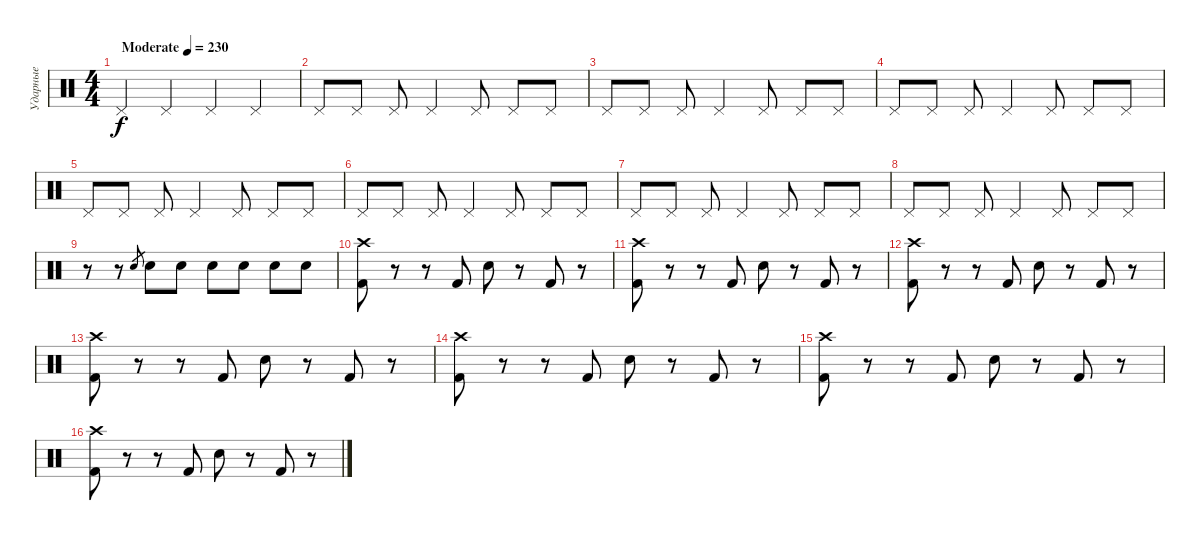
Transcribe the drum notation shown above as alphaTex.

\track ("Ударные" "Ударные") {instrument percussion}
\staff
\articulation defaults
\ts (4 4)
\tempo (230 "Moderate")
\clef neutral
\ks c "Pedal Hi-Hat (hit)".4{dy f} "Pedal Hi-Hat (hit)".4 "Pedal Hi-Hat (hit)".4 "Pedal Hi-Hat (hit)".4
|
"Pedal Hi-Hat (hit)".8 "Pedal Hi-Hat (hit)".8 "Pedal Hi-Hat (hit)".8 "Pedal Hi-Hat (hit)".4 "Pedal Hi-Hat (hit)".8 "Pedal Hi-Hat (hit)".8 "Pedal Hi-Hat (hit)".8 |
"Pedal Hi-Hat (hit)".8 "Pedal Hi-Hat (hit)".8 "Pedal Hi-Hat (hit)".8 "Pedal Hi-Hat (hit)".4 "Pedal Hi-Hat (hit)".8 "Pedal Hi-Hat (hit)".8 "Pedal Hi-Hat (hit)".8 |
"Pedal Hi-Hat (hit)".8 "Pedal Hi-Hat (hit)".8 "Pedal Hi-Hat (hit)".8 "Pedal Hi-Hat (hit)".4 "Pedal Hi-Hat (hit)".8 "Pedal Hi-Hat (hit)".8 "Pedal Hi-Hat (hit)".8 |
"Pedal Hi-Hat (hit)".8 "Pedal Hi-Hat (hit)".8 "Pedal Hi-Hat (hit)".8 "Pedal Hi-Hat (hit)".4 "Pedal Hi-Hat (hit)".8 "Pedal Hi-Hat (hit)".8 "Pedal Hi-Hat (hit)".8 |
"Pedal Hi-Hat (hit)".8 "Pedal Hi-Hat (hit)".8 "Pedal Hi-Hat (hit)".8 "Pedal Hi-Hat (hit)".4 "Pedal Hi-Hat (hit)".8 "Pedal Hi-Hat (hit)".8 "Pedal Hi-Hat (hit)".8 |
"Pedal Hi-Hat (hit)".8 "Pedal Hi-Hat (hit)".8 "Pedal Hi-Hat (hit)".8 "Pedal Hi-Hat (hit)".4 "Pedal Hi-Hat (hit)".8 "Pedal Hi-Hat (hit)".8 "Pedal Hi-Hat (hit)".8 |
"Pedal Hi-Hat (hit)".8 "Pedal Hi-Hat (hit)".8 "Pedal Hi-Hat (hit)".8 "Pedal Hi-Hat (hit)".4 "Pedal Hi-Hat (hit)".8 "Pedal Hi-Hat (hit)".8 "Pedal Hi-Hat (hit)".8 |
r.8 r.8 "Electric Snare (hit)".8{gr} "Electric Snare (hit)".8 "Electric Snare (hit)".8 "Electric Snare (hit)".8 "Electric Snare (hit)".8 "Electric Snare (hit)".8 "Electric Snare (hit)".8 |
("Crash high (hit)" "Kick (hit) 2").8 r.8 r.8 "Kick (hit) 2".8 "Electric Snare (hit)".8 r.8 "Kick (hit) 2".8 r.8 |
("Crash high (hit)" "Kick (hit) 2").8 r.8 r.8 "Kick (hit) 2".8 "Electric Snare (hit)".8 r.8 "Kick (hit) 2".8 r.8 |
("Crash high (hit)" "Kick (hit) 2").8 r.8 r.8 "Kick (hit) 2".8 "Electric Snare (hit)".8 r.8 "Kick (hit) 2".8 r.8 |
("Crash high (hit)" "Kick (hit) 2").8 r.8 r.8 "Kick (hit) 2".8 "Electric Snare (hit)".8 r.8 "Kick (hit) 2".8 r.8 |
("Crash high (hit)" "Kick (hit) 2").8 r.8 r.8 "Kick (hit) 2".8 "Electric Snare (hit)".8 r.8 "Kick (hit) 2".8 r.8 |
("Crash high (hit)" "Kick (hit) 2").8 r.8 r.8 "Kick (hit) 2".8 "Electric Snare (hit)".8 r.8 "Kick (hit) 2".8 r.8 |
("Crash high (hit)" "Kick (hit) 2").8 r.8 r.8 "Kick (hit) 2".8 "Electric Snare (hit)".8 r.8 "Kick (hit) 2".8 r.8
